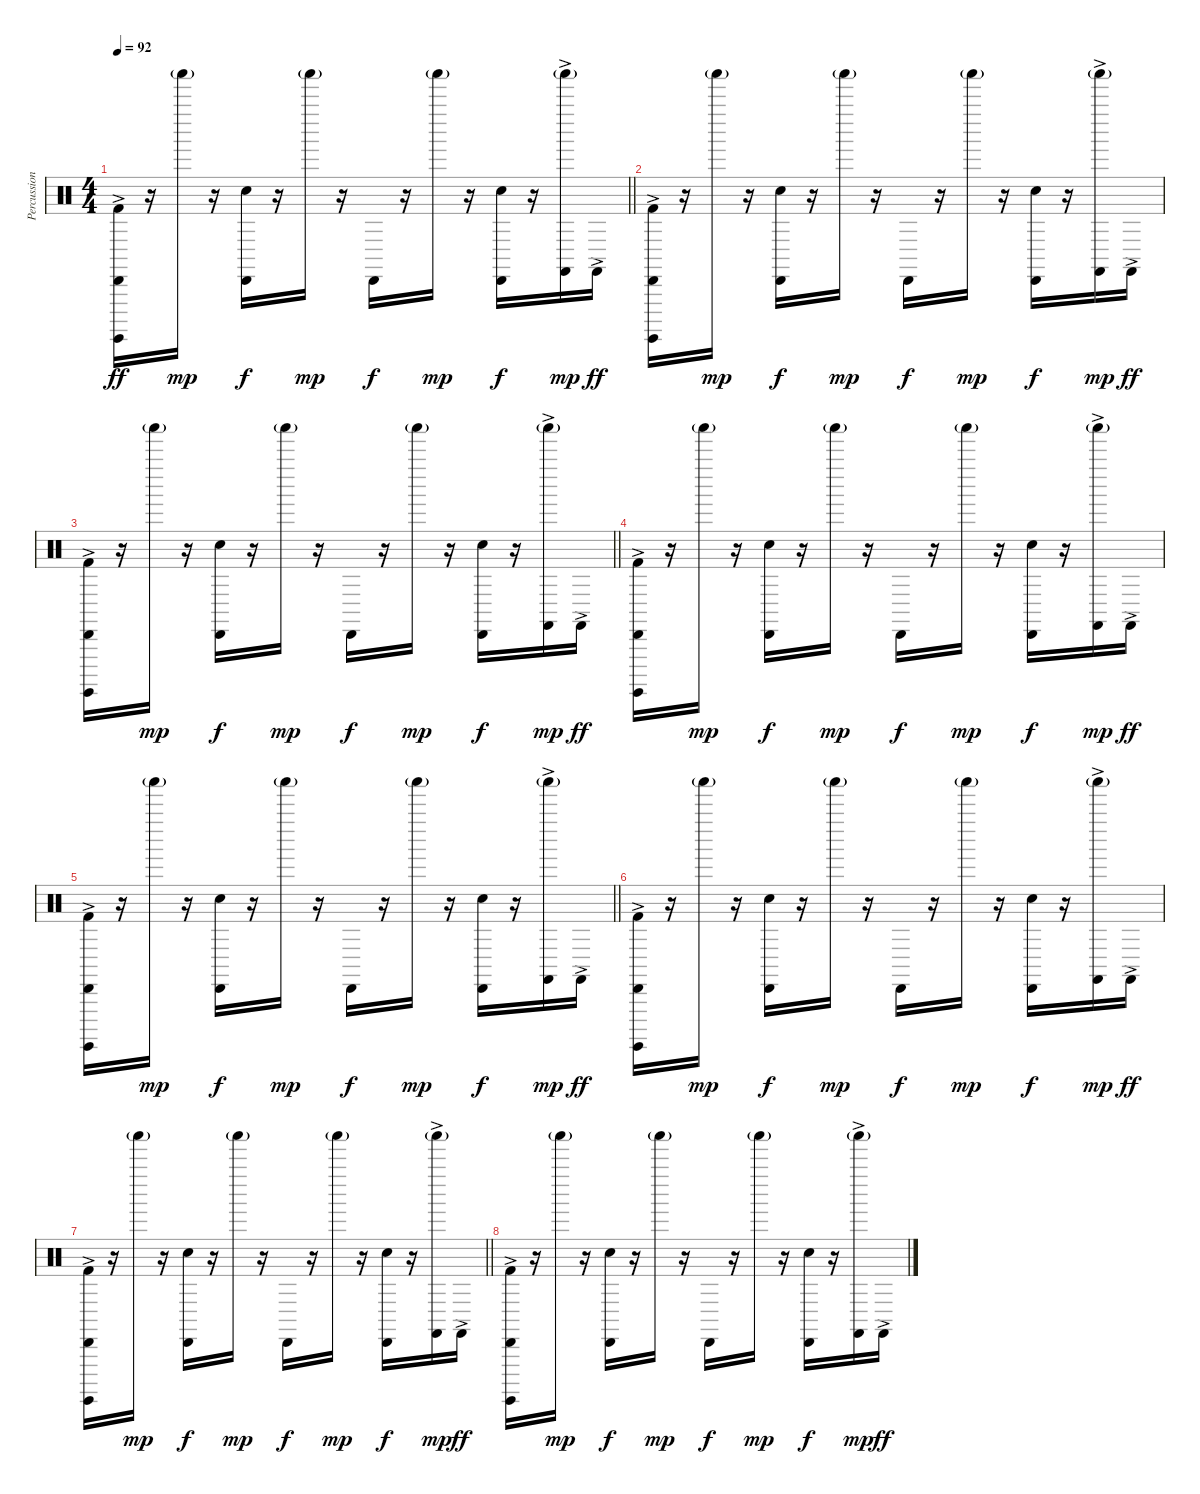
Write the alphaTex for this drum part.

\track ("Percussion" "Percussion") {instrument percussion}
\staff {score}
\articulation defaults
\ts (4 4)
\tempo 92
\clef neutral
\barLineRight lightlight
\ks c
("Kick (hit) 2" "Surdo (hit)"{ac} "Cabasa (hit)").16{dy ff} r.16 "Shaker (hit)"{g}.16{dy mp} r.16 ("Snare (hit) 2" "Cabasa (hit)").16{dy f} r.16 "Shaker (hit)"{g}.16{dy mp} r.16 "Cabasa (hit)".16{dy f} r.16 "Shaker (hit)"{g}.16{dy mp} r.16 ("Snare (hit) 2" "Cabasa (hit)").16{dy f} r.16 ("Castanets (hit)"{ac} "Shaker (hit)"{g}).16{dy mp} "Castanets (hit)"{ac}.16{dy ff} |
("Kick (hit) 2" "Surdo (hit)"{ac} "Cabasa (hit)").16 r.16 "Shaker (hit)"{g}.16{dy mp} r.16 ("Snare (hit) 2" "Cabasa (hit)").16{dy f} r.16 "Shaker (hit)"{g}.16{dy mp} r.16 "Cabasa (hit)".16{dy f} r.16 "Shaker (hit)"{g}.16{dy mp} r.16 ("Snare (hit) 2" "Cabasa (hit)").16{dy f} r.16 ("Castanets (hit)"{ac} "Shaker (hit)"{g}).16{dy mp} "Castanets (hit)"{ac}.16{dy ff} |
\barLineRight lightlight
("Kick (hit) 2" "Surdo (hit)"{ac} "Cabasa (hit)").16 r.16 "Shaker (hit)"{g}.16{dy mp} r.16 ("Snare (hit) 2" "Cabasa (hit)").16{dy f} r.16 "Shaker (hit)"{g}.16{dy mp} r.16 "Cabasa (hit)".16{dy f} r.16 "Shaker (hit)"{g}.16{dy mp} r.16 ("Snare (hit) 2" "Cabasa (hit)").16{dy f} r.16 ("Castanets (hit)"{ac} "Shaker (hit)"{g}).16{dy mp} "Castanets (hit)"{ac}.16{dy ff} |
("Kick (hit) 2" "Surdo (hit)"{ac} "Cabasa (hit)").16 r.16 "Shaker (hit)"{g}.16{dy mp} r.16 ("Snare (hit) 2" "Cabasa (hit)").16{dy f} r.16 "Shaker (hit)"{g}.16{dy mp} r.16 "Cabasa (hit)".16{dy f} r.16 "Shaker (hit)"{g}.16{dy mp} r.16 ("Snare (hit) 2" "Cabasa (hit)").16{dy f} r.16 ("Castanets (hit)"{ac} "Shaker (hit)"{g}).16{dy mp} "Castanets (hit)"{ac}.16{dy ff} |
\barLineRight lightlight
("Kick (hit) 2" "Surdo (hit)"{ac} "Cabasa (hit)").16 r.16 "Shaker (hit)"{g}.16{dy mp} r.16 ("Snare (hit) 2" "Cabasa (hit)").16{dy f} r.16 "Shaker (hit)"{g}.16{dy mp} r.16 "Cabasa (hit)".16{dy f} r.16 "Shaker (hit)"{g}.16{dy mp} r.16 ("Snare (hit) 2" "Cabasa (hit)").16{dy f} r.16 ("Castanets (hit)"{ac} "Shaker (hit)"{g}).16{dy mp} "Castanets (hit)"{ac}.16{dy ff} |
("Kick (hit) 2" "Surdo (hit)"{ac} "Cabasa (hit)").16 r.16 "Shaker (hit)"{g}.16{dy mp} r.16 ("Snare (hit) 2" "Cabasa (hit)").16{dy f} r.16 "Shaker (hit)"{g}.16{dy mp} r.16 "Cabasa (hit)".16{dy f} r.16 "Shaker (hit)"{g}.16{dy mp} r.16 ("Snare (hit) 2" "Cabasa (hit)").16{dy f} r.16 ("Castanets (hit)"{ac} "Shaker (hit)"{g}).16{dy mp} "Castanets (hit)"{ac}.16{dy ff} |
\barLineRight lightlight
("Kick (hit) 2" "Surdo (hit)"{ac} "Cabasa (hit)").16 r.16 "Shaker (hit)"{g}.16{dy mp} r.16 ("Snare (hit) 2" "Cabasa (hit)").16{dy f} r.16 "Shaker (hit)"{g}.16{dy mp} r.16 "Cabasa (hit)".16{dy f} r.16 "Shaker (hit)"{g}.16{dy mp} r.16 ("Snare (hit) 2" "Cabasa (hit)").16{dy f} r.16 ("Castanets (hit)"{ac} "Shaker (hit)"{g}).16{dy mp} "Castanets (hit)"{ac}.16{dy ff} |
("Kick (hit) 2" "Surdo (hit)"{ac} "Cabasa (hit)").16 r.16 "Shaker (hit)"{g}.16{dy mp} r.16 ("Snare (hit) 2" "Cabasa (hit)").16{dy f} r.16 "Shaker (hit)"{g}.16{dy mp} r.16 "Cabasa (hit)".16{dy f} r.16 "Shaker (hit)"{g}.16{dy mp} r.16 ("Snare (hit) 2" "Cabasa (hit)").16{dy f} r.16 ("Castanets (hit)"{ac} "Shaker (hit)"{g}).16{dy mp} "Castanets (hit)"{ac}.16{dy ff}
